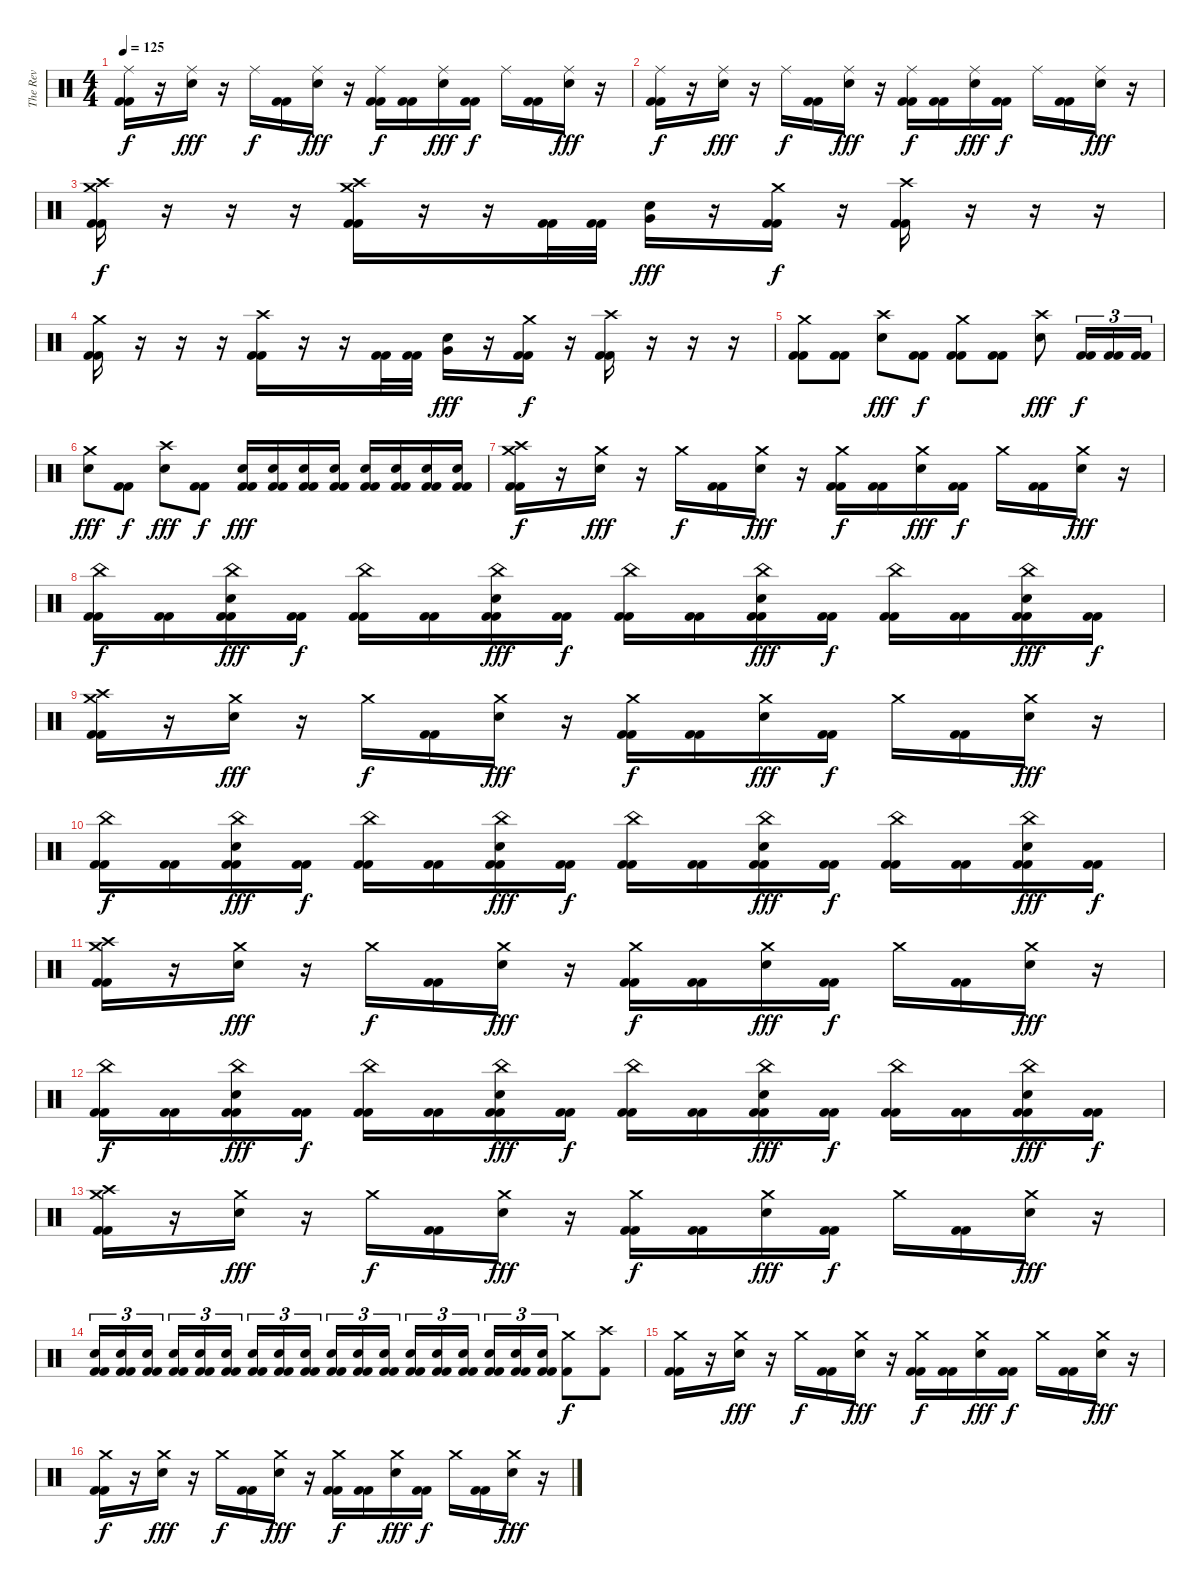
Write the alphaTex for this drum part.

\track ("The Rev" "The Rev") {instrument percussion}
\staff {score}
\articulation defaults
\ts (4 4)
\tempo 125
\clef neutral
\ks c
("Ride (middle)" "Kick (hit) 2" "Kick (hit) 2").16{dy f} r.16 ("Ride (middle)" "Electric Snare (hit)").16{dy fff} r.16 "Ride (middle)".16{dy f} ("Kick (hit) 2" "Kick (hit) 2").16 ("Ride (middle)" "Electric Snare (hit)").16{dy fff} r.16 ("Ride (middle)" "Kick (hit) 2" "Kick (hit) 2").16{dy f} ("Kick (hit) 2" "Kick (hit) 2").16 ("Ride (middle)" "Electric Snare (hit)").16{dy fff} ("Kick (hit) 2" "Kick (hit) 2").16{dy f} "Ride (middle)".16 ("Kick (hit) 2" "Kick (hit) 2").16 ("Ride (middle)" "Electric Snare (hit)").16{dy fff} r.16 |
("Ride (middle)" "Kick (hit) 2" "Kick (hit) 2").16{dy f} r.16 ("Ride (middle)" "Electric Snare (hit)").16{dy fff} r.16 "Ride (middle)".16{dy f} ("Kick (hit) 2" "Kick (hit) 2").16 ("Ride (middle)" "Electric Snare (hit)").16{dy fff} r.16 ("Ride (middle)" "Kick (hit) 2" "Kick (hit) 2").16{dy f} ("Kick (hit) 2" "Kick (hit) 2").16 ("Ride (middle)" "Electric Snare (hit)").16{dy fff} ("Kick (hit) 2" "Kick (hit) 2").16{dy f} "Ride (middle)".16 ("Kick (hit) 2" "Kick (hit) 2").16 ("Ride (middle)" "Electric Snare (hit)").16{dy fff} r.16 |
("Crash high (hit)" "Crash medium (hit)" "Kick (hit) 2" "Kick (hit) 2").16{dy f} r.16 r.16 r.16 ("Crash high (hit)" "Crash medium (hit)" "Kick (hit) 2" "Kick (hit) 2").16 r.16 r.16 ("Kick (hit) 2" "Kick (hit) 2").32 ("Kick (hit) 2" "Kick (hit) 2").32 ("Electric Snare (hit)" "Very Low Tom (hit)").16{dy fff} r.16 ("Crash medium (hit)" "Kick (hit) 2" "Kick (hit) 2").16{dy f} r.16 ("Crash high (hit)" "Kick (hit) 2" "Kick (hit) 2").16 r.16 r.16 r.16 |
("Crash medium (hit)" "Kick (hit) 2" "Kick (hit) 2").16 r.16 r.16 r.16 ("Crash high (hit)" "Kick (hit) 2" "Kick (hit) 2").16 r.16 r.16 ("Kick (hit) 2" "Kick (hit) 2").32 ("Kick (hit) 2" "Kick (hit) 2").32 ("Electric Snare (hit)" "Very Low Tom (hit)").16{dy fff} r.16 ("Crash medium (hit)" "Kick (hit) 2" "Kick (hit) 2").16{dy f} r.16 ("Crash high (hit)" "Kick (hit) 2" "Kick (hit) 2").16 r.16 r.16 r.16 |
("Crash medium (hit)" "Kick (hit) 2" "Kick (hit) 2").8 ("Kick (hit) 2" "Kick (hit) 2").8 ("Crash high (hit)" "Electric Snare (hit)").8{dy fff} ("Kick (hit) 2" "Kick (hit) 2").8{dy f} ("Crash medium (hit)" "Kick (hit) 2" "Kick (hit) 2").8 ("Kick (hit) 2" "Kick (hit) 2").8 ("Crash high (hit)" "Electric Snare (hit)").8{dy fff} ("Kick (hit) 2" "Kick (hit) 2").16{tu (3 2) dy f} ("Kick (hit) 2" "Kick (hit) 2").16{tu (3 2)} ("Kick (hit) 2" "Kick (hit) 2").16{tu (3 2)} |
("Crash medium (hit)" "Electric Snare (hit)").8{dy fff} ("Kick (hit) 2" "Kick (hit) 2").8{dy f} ("Crash high (hit)" "Electric Snare (hit)").8{dy fff} ("Kick (hit) 2" "Kick (hit) 2").8{dy f} ("Electric Snare (hit)" "Kick (hit) 2" "Kick (hit) 2").16{dy fff} ("Electric Snare (hit)" "Kick (hit) 2" "Kick (hit) 2").16 ("Electric Snare (hit)" "Kick (hit) 2" "Kick (hit) 2").16 ("Electric Snare (hit)" "Kick (hit) 2" "Kick (hit) 2").16 ("Electric Snare (hit)" "Kick (hit) 2" "Kick (hit) 2").16 ("Electric Snare (hit)" "Kick (hit) 2" "Kick (hit) 2").16 ("Electric Snare (hit)" "Kick (hit) 2" "Kick (hit) 2").16 ("Electric Snare (hit)" "Kick (hit) 2" "Kick (hit) 2").16 |
("Crash high (hit)" "Crash medium (hit)" "Kick (hit) 2" "Kick (hit) 2").16{dy f} r.16 ("Crash medium (hit)" "Electric Snare (hit)").16{dy fff} r.16 "Crash medium (hit)".16{dy f} ("Kick (hit) 2" "Kick (hit) 2").16 ("Crash medium (hit)" "Electric Snare (hit)").16{dy fff} r.16 ("Crash medium (hit)" "Kick (hit) 2" "Kick (hit) 2").16{dy f} ("Kick (hit) 2" "Kick (hit) 2").16 ("Crash medium (hit)" "Electric Snare (hit)").16{dy fff} ("Kick (hit) 2" "Kick (hit) 2").16{dy f} "Crash medium (hit)".16 ("Kick (hit) 2" "Kick (hit) 2").16 ("Crash medium (hit)" "Electric Snare (hit)").16{dy fff} r.16 |
("China (hit)" "Kick (hit) 2" "Kick (hit) 2").16{dy f} ("Kick (hit) 2" "Kick (hit) 2").16 ("China (hit)" "Electric Snare (hit)" "Kick (hit) 2" "Kick (hit) 2").16{dy fff} ("Kick (hit) 2" "Kick (hit) 2").16{dy f} ("China (hit)" "Kick (hit) 2" "Kick (hit) 2").16 ("Kick (hit) 2" "Kick (hit) 2").16 ("China (hit)" "Electric Snare (hit)" "Kick (hit) 2" "Kick (hit) 2").16{dy fff} ("Kick (hit) 2" "Kick (hit) 2").16{dy f} ("China (hit)" "Kick (hit) 2" "Kick (hit) 2").16 ("Kick (hit) 2" "Kick (hit) 2").16 ("China (hit)" "Electric Snare (hit)" "Kick (hit) 2" "Kick (hit) 2").16{dy fff} ("Kick (hit) 2" "Kick (hit) 2").16{dy f} ("China (hit)" "Kick (hit) 2" "Kick (hit) 2").16 ("Kick (hit) 2" "Kick (hit) 2").16 ("China (hit)" "Electric Snare (hit)" "Kick (hit) 2" "Kick (hit) 2").16{dy fff} ("Kick (hit) 2" "Kick (hit) 2").16{dy f} |
("Crash high (hit)" "Crash medium (hit)" "Kick (hit) 2" "Kick (hit) 2").16 r.16 ("Crash medium (hit)" "Electric Snare (hit)").16{dy fff} r.16 "Crash medium (hit)".16{dy f} ("Kick (hit) 2" "Kick (hit) 2").16 ("Crash medium (hit)" "Electric Snare (hit)").16{dy fff} r.16 ("Crash medium (hit)" "Kick (hit) 2" "Kick (hit) 2").16{dy f} ("Kick (hit) 2" "Kick (hit) 2").16 ("Crash medium (hit)" "Electric Snare (hit)").16{dy fff} ("Kick (hit) 2" "Kick (hit) 2").16{dy f} "Crash medium (hit)".16 ("Kick (hit) 2" "Kick (hit) 2").16 ("Crash medium (hit)" "Electric Snare (hit)").16{dy fff} r.16 |
("China (hit)" "Kick (hit) 2" "Kick (hit) 2").16{dy f} ("Kick (hit) 2" "Kick (hit) 2").16 ("China (hit)" "Electric Snare (hit)" "Kick (hit) 2" "Kick (hit) 2").16{dy fff} ("Kick (hit) 2" "Kick (hit) 2").16{dy f} ("China (hit)" "Kick (hit) 2" "Kick (hit) 2").16 ("Kick (hit) 2" "Kick (hit) 2").16 ("China (hit)" "Electric Snare (hit)" "Kick (hit) 2" "Kick (hit) 2").16{dy fff} ("Kick (hit) 2" "Kick (hit) 2").16{dy f} ("China (hit)" "Kick (hit) 2" "Kick (hit) 2").16 ("Kick (hit) 2" "Kick (hit) 2").16 ("China (hit)" "Electric Snare (hit)" "Kick (hit) 2" "Kick (hit) 2").16{dy fff} ("Kick (hit) 2" "Kick (hit) 2").16{dy f} ("China (hit)" "Kick (hit) 2" "Kick (hit) 2").16 ("Kick (hit) 2" "Kick (hit) 2").16 ("China (hit)" "Electric Snare (hit)" "Kick (hit) 2" "Kick (hit) 2").16{dy fff} ("Kick (hit) 2" "Kick (hit) 2").16{dy f} |
("Crash high (hit)" "Crash medium (hit)" "Kick (hit) 2" "Kick (hit) 2").16 r.16 ("Crash medium (hit)" "Electric Snare (hit)").16{dy fff} r.16 "Crash medium (hit)".16{dy f} ("Kick (hit) 2" "Kick (hit) 2").16 ("Crash medium (hit)" "Electric Snare (hit)").16{dy fff} r.16 ("Crash medium (hit)" "Kick (hit) 2" "Kick (hit) 2").16{dy f} ("Kick (hit) 2" "Kick (hit) 2").16 ("Crash medium (hit)" "Electric Snare (hit)").16{dy fff} ("Kick (hit) 2" "Kick (hit) 2").16{dy f} "Crash medium (hit)".16 ("Kick (hit) 2" "Kick (hit) 2").16 ("Crash medium (hit)" "Electric Snare (hit)").16{dy fff} r.16 |
("China (hit)" "Kick (hit) 2" "Kick (hit) 2").16{dy f} ("Kick (hit) 2" "Kick (hit) 2").16 ("China (hit)" "Electric Snare (hit)" "Kick (hit) 2" "Kick (hit) 2").16{dy fff} ("Kick (hit) 2" "Kick (hit) 2").16{dy f} ("China (hit)" "Kick (hit) 2" "Kick (hit) 2").16 ("Kick (hit) 2" "Kick (hit) 2").16 ("China (hit)" "Electric Snare (hit)" "Kick (hit) 2" "Kick (hit) 2").16{dy fff} ("Kick (hit) 2" "Kick (hit) 2").16{dy f} ("China (hit)" "Kick (hit) 2" "Kick (hit) 2").16 ("Kick (hit) 2" "Kick (hit) 2").16 ("China (hit)" "Electric Snare (hit)" "Kick (hit) 2" "Kick (hit) 2").16{dy fff} ("Kick (hit) 2" "Kick (hit) 2").16{dy f} ("China (hit)" "Kick (hit) 2" "Kick (hit) 2").16 ("Kick (hit) 2" "Kick (hit) 2").16 ("China (hit)" "Electric Snare (hit)" "Kick (hit) 2" "Kick (hit) 2").16{dy fff} ("Kick (hit) 2" "Kick (hit) 2").16{dy f} |
("Crash high (hit)" "Crash medium (hit)" "Kick (hit) 2" "Kick (hit) 2").16 r.16 ("Crash medium (hit)" "Electric Snare (hit)").16{dy fff} r.16 "Crash medium (hit)".16{dy f} ("Kick (hit) 2" "Kick (hit) 2").16 ("Crash medium (hit)" "Electric Snare (hit)").16{dy fff} r.16 ("Crash medium (hit)" "Kick (hit) 2" "Kick (hit) 2").16{dy f} ("Kick (hit) 2" "Kick (hit) 2").16 ("Crash medium (hit)" "Electric Snare (hit)").16{dy fff} ("Kick (hit) 2" "Kick (hit) 2").16{dy f} "Crash medium (hit)".16 ("Kick (hit) 2" "Kick (hit) 2").16 ("Crash medium (hit)" "Electric Snare (hit)").16{dy fff} r.16 |
("Electric Snare (hit)" "Kick (hit) 2" "Kick (hit) 2").16{tu (3 2)} ("Electric Snare (hit)" "Kick (hit) 2" "Kick (hit) 2").16{tu (3 2)} ("Electric Snare (hit)" "Kick (hit) 2" "Kick (hit) 2").16{tu (3 2) beam splitsecondary} ("Electric Snare (hit)" "Kick (hit) 2" "Kick (hit) 2").16{tu (3 2)} ("Electric Snare (hit)" "Kick (hit) 2" "Kick (hit) 2").16{tu (3 2)} ("Electric Snare (hit)" "Kick (hit) 2" "Kick (hit) 2").16{tu (3 2)} ("Electric Snare (hit)" "Kick (hit) 2" "Kick (hit) 2").16{tu (3 2)} ("Electric Snare (hit)" "Kick (hit) 2" "Kick (hit) 2").16{tu (3 2)} ("Electric Snare (hit)" "Kick (hit) 2" "Kick (hit) 2").16{tu (3 2) beam splitsecondary} ("Electric Snare (hit)" "Kick (hit) 2" "Kick (hit) 2").16{tu (3 2)} ("Electric Snare (hit)" "Kick (hit) 2" "Kick (hit) 2").16{tu (3 2)} ("Electric Snare (hit)" "Kick (hit) 2" "Kick (hit) 2").16{tu (3 2)} ("Electric Snare (hit)" "Kick (hit) 2" "Kick (hit) 2").16{tu (3 2)} ("Electric Snare (hit)" "Kick (hit) 2" "Kick (hit) 2").16{tu (3 2)} ("Electric Snare (hit)" "Kick (hit) 2" "Kick (hit) 2").16{tu (3 2) beam splitsecondary} ("Electric Snare (hit)" "Kick (hit) 2" "Kick (hit) 2").16{tu (3 2)} ("Electric Snare (hit)" "Kick (hit) 2" "Kick (hit) 2").16{tu (3 2)} ("Electric Snare (hit)" "Kick (hit) 2" "Kick (hit) 2").16{tu (3 2)} ("Crash medium (hit)" "Kick (hit) 2").8{dy f} ("Crash high (hit)" "Kick (hit) 2").8 |
("Crash medium (hit)" "Kick (hit) 2" "Kick (hit) 2").16 r.16 ("Crash medium (hit)" "Electric Snare (hit)").16{dy fff} r.16 "Crash medium (hit)".16{dy f} ("Kick (hit) 2" "Kick (hit) 2").16 ("Crash medium (hit)" "Electric Snare (hit)").16{dy fff} r.16 ("Crash medium (hit)" "Kick (hit) 2" "Kick (hit) 2").16{dy f} ("Kick (hit) 2" "Kick (hit) 2").16 ("Crash medium (hit)" "Electric Snare (hit)").16{dy fff} ("Kick (hit) 2" "Kick (hit) 2").16{dy f} "Crash medium (hit)".16 ("Kick (hit) 2" "Kick (hit) 2").16 ("Crash medium (hit)" "Electric Snare (hit)").16{dy fff} r.16 |
("Crash medium (hit)" "Kick (hit) 2" "Kick (hit) 2").16{dy f} r.16 ("Crash medium (hit)" "Electric Snare (hit)").16{dy fff} r.16 "Crash medium (hit)".16{dy f} ("Kick (hit) 2" "Kick (hit) 2").16 ("Crash medium (hit)" "Electric Snare (hit)").16{dy fff} r.16 ("Crash medium (hit)" "Kick (hit) 2" "Kick (hit) 2").16{dy f} ("Kick (hit) 2" "Kick (hit) 2").16 ("Crash medium (hit)" "Electric Snare (hit)").16{dy fff} ("Kick (hit) 2" "Kick (hit) 2").16{dy f} "Crash medium (hit)".16 ("Kick (hit) 2" "Kick (hit) 2").16 ("Crash medium (hit)" "Electric Snare (hit)").16{dy fff} r.16
